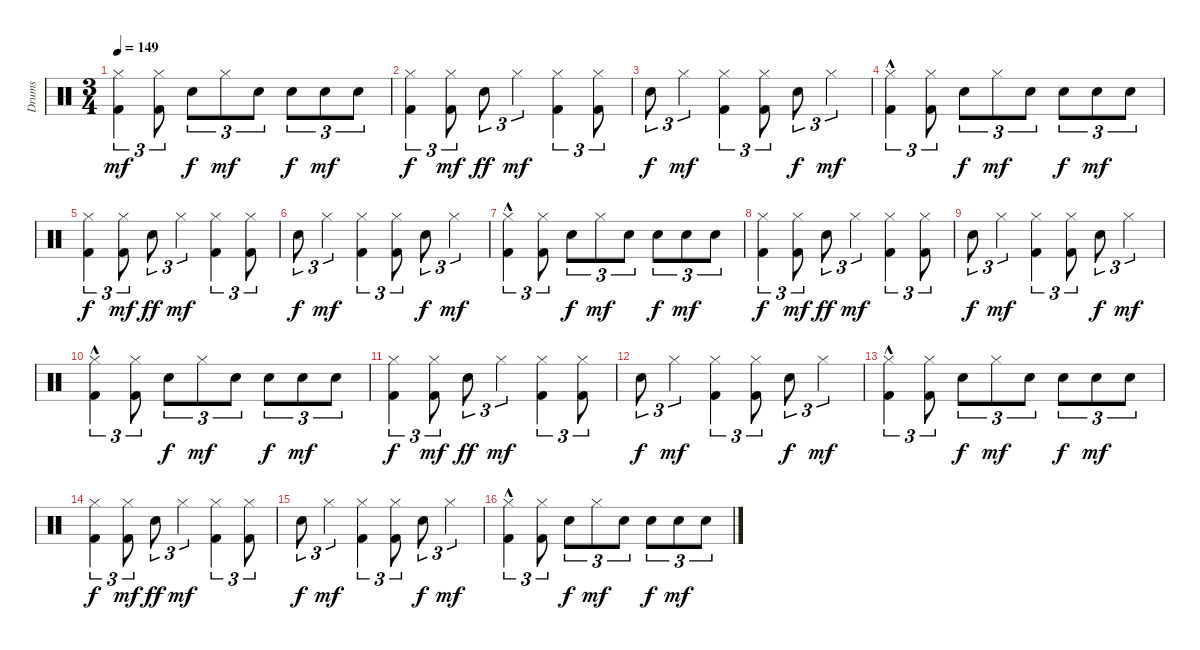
\track ("Drums" "Drums") {instrument percussion}
\staff {score}
\articulation defaults
\ts (3 4)
\tempo 149
\clef neutral
\ks c
("Kick (hit) 2" "Hi-Hat (closed)").4{tu (3 2) dy mf} ("Kick (hit) 2" "Hi-Hat (closed)").8{tu (3 2)} "Snare (hit) 2".8{tu (3 2) dy f} "Hi-Hat (closed)".8{tu (3 2) dy mf} "Snare (hit) 2".8{tu (3 2)} "Snare (hit) 2".8{tu (3 2) dy f} "Snare (hit) 2".8{tu (3 2) dy mf} "Snare (hit) 2".8{tu (3 2)} |
("Kick (hit) 2" "Hi-Hat (closed)").4{tu (3 2) dy f} ("Kick (hit) 2" "Hi-Hat (closed)").8{tu (3 2) dy mf} "Snare (hit) 2".8{tu (3 2) dy ff} "Hi-Hat (closed)".4{tu (3 2) dy mf} ("Kick (hit) 2" "Hi-Hat (closed)").4{tu (3 2)} ("Kick (hit) 2" "Hi-Hat (closed)").8{tu (3 2)} |
"Snare (hit) 2".8{tu (3 2) dy f} "Hi-Hat (closed)".4{tu (3 2) dy mf} ("Kick (hit) 2" "Hi-Hat (closed)").4{tu (3 2)} ("Kick (hit) 2" "Hi-Hat (closed)").8{tu (3 2)} "Snare (hit) 2".8{tu (3 2) dy f} "Hi-Hat (closed)".4{tu (3 2) dy mf} |
("Kick (hit) 2" "Hi-Hat (closed)"{hac}).4{tu (3 2)} ("Kick (hit) 2" "Hi-Hat (closed)").8{tu (3 2)} "Snare (hit) 2".8{tu (3 2) dy f} "Hi-Hat (closed)".8{tu (3 2) dy mf} "Snare (hit) 2".8{tu (3 2)} "Snare (hit) 2".8{tu (3 2) dy f} "Snare (hit) 2".8{tu (3 2) dy mf} "Snare (hit) 2".8{tu (3 2)} |
("Kick (hit) 2" "Hi-Hat (closed)").4{tu (3 2) dy f} ("Kick (hit) 2" "Hi-Hat (closed)").8{tu (3 2) dy mf} "Snare (hit) 2".8{tu (3 2) dy ff} "Hi-Hat (closed)".4{tu (3 2) dy mf} ("Kick (hit) 2" "Hi-Hat (closed)").4{tu (3 2)} ("Kick (hit) 2" "Hi-Hat (closed)").8{tu (3 2)} |
"Snare (hit) 2".8{tu (3 2) dy f} "Hi-Hat (closed)".4{tu (3 2) dy mf} ("Kick (hit) 2" "Hi-Hat (closed)").4{tu (3 2)} ("Kick (hit) 2" "Hi-Hat (closed)").8{tu (3 2)} "Snare (hit) 2".8{tu (3 2) dy f} "Hi-Hat (closed)".4{tu (3 2) dy mf} |
("Kick (hit) 2" "Hi-Hat (closed)"{hac}).4{tu (3 2)} ("Kick (hit) 2" "Hi-Hat (closed)").8{tu (3 2)} "Snare (hit) 2".8{tu (3 2) dy f} "Hi-Hat (closed)".8{tu (3 2) dy mf} "Snare (hit) 2".8{tu (3 2)} "Snare (hit) 2".8{tu (3 2) dy f} "Snare (hit) 2".8{tu (3 2) dy mf} "Snare (hit) 2".8{tu (3 2)} |
("Kick (hit) 2" "Hi-Hat (closed)").4{tu (3 2) dy f} ("Kick (hit) 2" "Hi-Hat (closed)").8{tu (3 2) dy mf} "Snare (hit) 2".8{tu (3 2) dy ff} "Hi-Hat (closed)".4{tu (3 2) dy mf} ("Kick (hit) 2" "Hi-Hat (closed)").4{tu (3 2)} ("Kick (hit) 2" "Hi-Hat (closed)").8{tu (3 2)} |
"Snare (hit) 2".8{tu (3 2) dy f} "Hi-Hat (closed)".4{tu (3 2) dy mf} ("Kick (hit) 2" "Hi-Hat (closed)").4{tu (3 2)} ("Kick (hit) 2" "Hi-Hat (closed)").8{tu (3 2)} "Snare (hit) 2".8{tu (3 2) dy f} "Hi-Hat (closed)".4{tu (3 2) dy mf} |
("Kick (hit) 2" "Hi-Hat (closed)"{hac}).4{tu (3 2)} ("Kick (hit) 2" "Hi-Hat (closed)").8{tu (3 2)} "Snare (hit) 2".8{tu (3 2) dy f} "Hi-Hat (closed)".8{tu (3 2) dy mf} "Snare (hit) 2".8{tu (3 2)} "Snare (hit) 2".8{tu (3 2) dy f} "Snare (hit) 2".8{tu (3 2) dy mf} "Snare (hit) 2".8{tu (3 2)} |
("Kick (hit) 2" "Hi-Hat (closed)").4{tu (3 2) dy f} ("Kick (hit) 2" "Hi-Hat (closed)").8{tu (3 2) dy mf} "Snare (hit) 2".8{tu (3 2) dy ff} "Hi-Hat (closed)".4{tu (3 2) dy mf} ("Kick (hit) 2" "Hi-Hat (closed)").4{tu (3 2)} ("Kick (hit) 2" "Hi-Hat (closed)").8{tu (3 2)} |
"Snare (hit) 2".8{tu (3 2) dy f} "Hi-Hat (closed)".4{tu (3 2) dy mf} ("Kick (hit) 2" "Hi-Hat (closed)").4{tu (3 2)} ("Kick (hit) 2" "Hi-Hat (closed)").8{tu (3 2)} "Snare (hit) 2".8{tu (3 2) dy f} "Hi-Hat (closed)".4{tu (3 2) dy mf} |
("Kick (hit) 2" "Hi-Hat (closed)"{hac}).4{tu (3 2)} ("Kick (hit) 2" "Hi-Hat (closed)").8{tu (3 2)} "Snare (hit) 2".8{tu (3 2) dy f} "Hi-Hat (closed)".8{tu (3 2) dy mf} "Snare (hit) 2".8{tu (3 2)} "Snare (hit) 2".8{tu (3 2) dy f} "Snare (hit) 2".8{tu (3 2) dy mf} "Snare (hit) 2".8{tu (3 2)} |
("Kick (hit) 2" "Hi-Hat (closed)").4{tu (3 2) dy f} ("Kick (hit) 2" "Hi-Hat (closed)").8{tu (3 2) dy mf} "Snare (hit) 2".8{tu (3 2) dy ff} "Hi-Hat (closed)".4{tu (3 2) dy mf} ("Kick (hit) 2" "Hi-Hat (closed)").4{tu (3 2)} ("Kick (hit) 2" "Hi-Hat (closed)").8{tu (3 2)} |
"Snare (hit) 2".8{tu (3 2) dy f} "Hi-Hat (closed)".4{tu (3 2) dy mf} ("Kick (hit) 2" "Hi-Hat (closed)").4{tu (3 2)} ("Kick (hit) 2" "Hi-Hat (closed)").8{tu (3 2)} "Snare (hit) 2".8{tu (3 2) dy f} "Hi-Hat (closed)".4{tu (3 2) dy mf} |
("Kick (hit) 2" "Hi-Hat (closed)"{hac}).4{tu (3 2)} ("Kick (hit) 2" "Hi-Hat (closed)").8{tu (3 2)} "Snare (hit) 2".8{tu (3 2) dy f} "Hi-Hat (closed)".8{tu (3 2) dy mf} "Snare (hit) 2".8{tu (3 2)} "Snare (hit) 2".8{tu (3 2) dy f} "Snare (hit) 2".8{tu (3 2) dy mf} "Snare (hit) 2".8{tu (3 2)}
